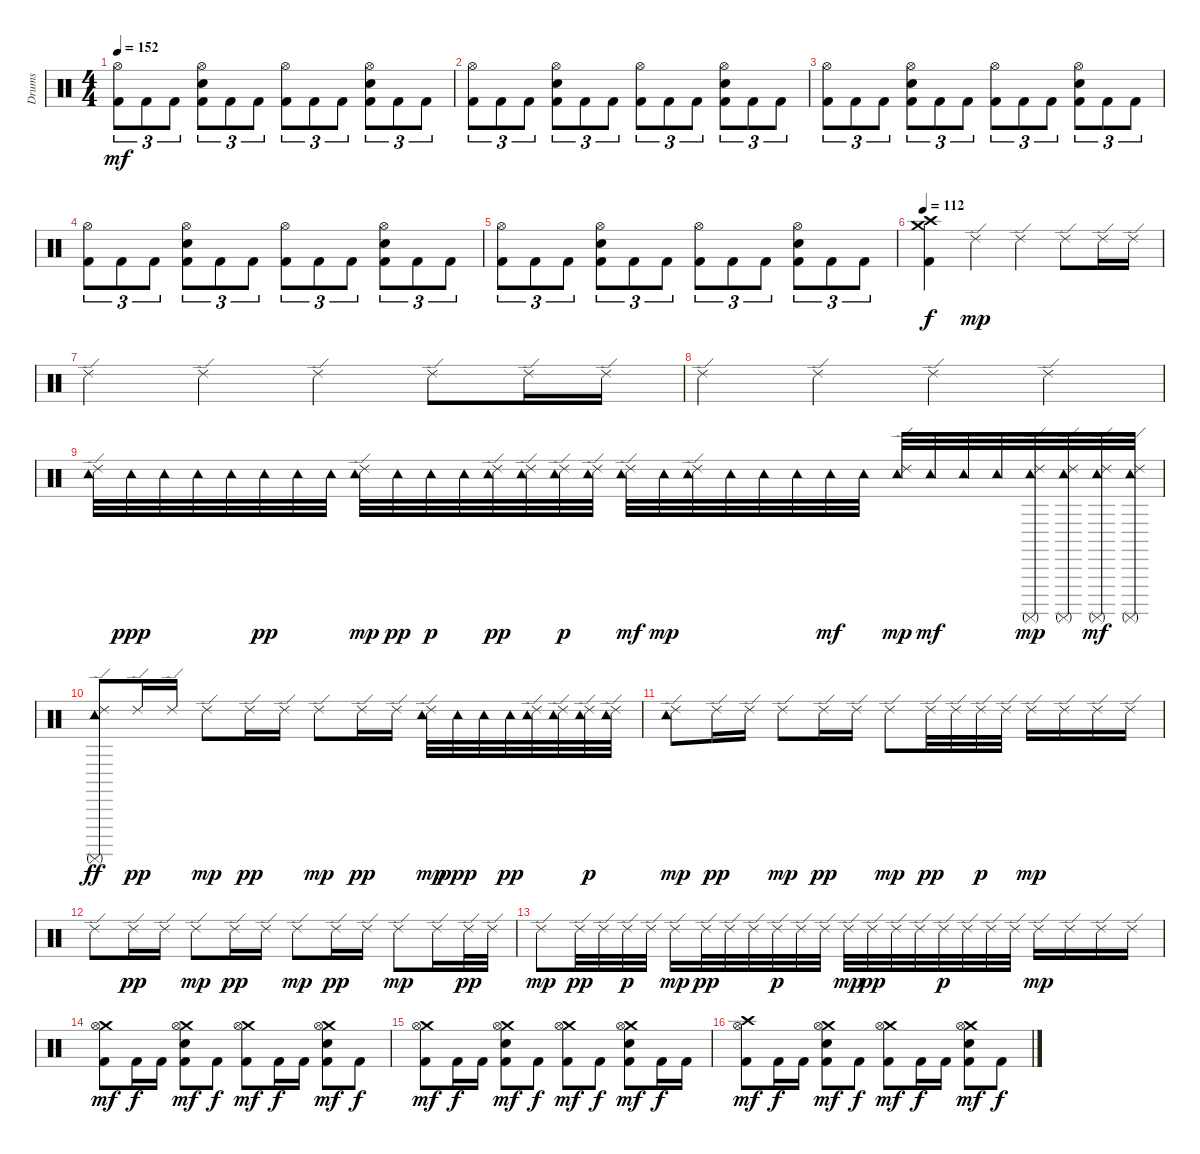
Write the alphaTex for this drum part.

\track ("Drums" "Drums") {instrument percussion}
\staff {score}
\articulation defaults
\ts (4 4)
\tempo 152
\clef neutral
\ks c
("Hi-Hat (open)" "Kick (hit) 2").8{tu (3 2) dy mf} "Kick (hit) 2".8{tu (3 2)} "Kick (hit) 2".8{tu (3 2)} ("Hi-Hat (open)" "Electric Snare (hit)" "Kick (hit) 2").8{tu (3 2)} "Kick (hit) 2".8{tu (3 2)} "Kick (hit) 2".8{tu (3 2)} ("Hi-Hat (open)" "Kick (hit) 2").8{tu (3 2)} "Kick (hit) 2".8{tu (3 2)} "Kick (hit) 2".8{tu (3 2)} ("Hi-Hat (open)" "Electric Snare (hit)" "Kick (hit) 2").8{tu (3 2)} "Kick (hit) 2".8{tu (3 2)} "Kick (hit) 2".8{tu (3 2)} |
("Hi-Hat (open)" "Kick (hit) 2").8{tu (3 2)} "Kick (hit) 2".8{tu (3 2)} "Kick (hit) 2".8{tu (3 2)} ("Hi-Hat (open)" "Electric Snare (hit)" "Kick (hit) 2").8{tu (3 2)} "Kick (hit) 2".8{tu (3 2)} "Kick (hit) 2".8{tu (3 2)} ("Hi-Hat (open)" "Kick (hit) 2").8{tu (3 2)} "Kick (hit) 2".8{tu (3 2)} "Kick (hit) 2".8{tu (3 2)} ("Hi-Hat (open)" "Electric Snare (hit)" "Kick (hit) 2").8{tu (3 2)} "Kick (hit) 2".8{tu (3 2)} "Kick (hit) 2".8{tu (3 2)} |
("Hi-Hat (open)" "Kick (hit) 2").8{tu (3 2)} "Kick (hit) 2".8{tu (3 2)} "Kick (hit) 2".8{tu (3 2)} ("Hi-Hat (open)" "Electric Snare (hit)" "Kick (hit) 2").8{tu (3 2)} "Kick (hit) 2".8{tu (3 2)} "Kick (hit) 2".8{tu (3 2)} ("Hi-Hat (open)" "Kick (hit) 2").8{tu (3 2)} "Kick (hit) 2".8{tu (3 2)} "Kick (hit) 2".8{tu (3 2)} ("Hi-Hat (open)" "Electric Snare (hit)" "Kick (hit) 2").8{tu (3 2)} "Kick (hit) 2".8{tu (3 2)} "Kick (hit) 2".8{tu (3 2)} |
("Hi-Hat (open)" "Kick (hit) 2").8{tu (3 2)} "Kick (hit) 2".8{tu (3 2)} "Kick (hit) 2".8{tu (3 2)} ("Hi-Hat (open)" "Electric Snare (hit)" "Kick (hit) 2").8{tu (3 2)} "Kick (hit) 2".8{tu (3 2)} "Kick (hit) 2".8{tu (3 2)} ("Hi-Hat (open)" "Kick (hit) 2").8{tu (3 2)} "Kick (hit) 2".8{tu (3 2)} "Kick (hit) 2".8{tu (3 2)} ("Hi-Hat (open)" "Electric Snare (hit)" "Kick (hit) 2").8{tu (3 2)} "Kick (hit) 2".8{tu (3 2)} "Kick (hit) 2".8{tu (3 2)} |
("Hi-Hat (open)" "Kick (hit) 2").8{tu (3 2)} "Kick (hit) 2".8{tu (3 2)} "Kick (hit) 2".8{tu (3 2)} ("Hi-Hat (open)" "Electric Snare (hit)" "Kick (hit) 2").8{tu (3 2)} "Kick (hit) 2".8{tu (3 2)} "Kick (hit) 2".8{tu (3 2)} ("Hi-Hat (open)" "Kick (hit) 2").8{tu (3 2)} "Kick (hit) 2".8{tu (3 2)} "Kick (hit) 2".8{tu (3 2)} ("Hi-Hat (open)" "Electric Snare (hit)" "Kick (hit) 2").8{tu (3 2)} "Kick (hit) 2".8{tu (3 2)} "Kick (hit) 2".8{tu (3 2)} |
\tempo 112
("Crash medium (hit)" "Crash high (hit)" "Kick (hit) 2").4{dy f} "Ride (edge) 2".4{dy mp} "Ride (edge) 2".4 "Ride (edge) 2".8 "Ride (edge) 2".16 "Ride (edge) 2".16 |
"Ride (edge) 2".4 "Ride (edge) 2".4 "Ride (edge) 2".4 "Ride (edge) 2".8 "Ride (edge) 2".16 "Ride (edge) 2".16 |
"Ride (edge) 2".4 "Ride (edge) 2".4 "Ride (edge) 2".4 "Ride (edge) 2".4 |
("Tambourine (hit)" "Ride (edge) 2").32 "Tambourine (hit)".32{dy ppp} "Tambourine (hit)".32 "Tambourine (hit)".32 "Tambourine (hit)".32 "Tambourine (hit)".32{dy pp} "Tambourine (hit)".32 "Tambourine (hit)".32 ("Tambourine (hit)" "Ride (edge) 2").32{dy mp} "Tambourine (hit)".32{dy pp} "Tambourine (hit)".32{dy p} "Tambourine (hit)".32 ("Tambourine (hit)" "Ride (edge) 2").32{dy pp} ("Tambourine (hit)" "Ride (edge) 2").32 ("Tambourine (hit)" "Ride (edge) 2").32{dy p} ("Tambourine (hit)" "Ride (edge) 2").32 ("Tambourine (hit)" "Ride (edge) 2").32{dy mf} "Tambourine (hit)".32{dy mp} ("Tambourine (hit)" "Ride (edge) 2").32 "Tambourine (hit)".32 "Tambourine (hit)".32 "Tambourine (hit)".32 "Tambourine (hit)".32{dy mf} "Tambourine (hit)".32 ("Tambourine (hit)" "Ride (edge) 2").32{dy mp} "Tambourine (hit)".32{dy mf} "Tambourine (hit)".32 "Tambourine (hit)".32 ("Tambourine (hit)" "Ride (edge) 2" "Surdo (mute)").32{dy mp} ("Tambourine (hit)" "Ride (edge) 2" "Surdo (mute)").32 ("Tambourine (hit)" "Ride (edge) 2" "Surdo (mute)").32{dy mf} ("Tambourine (hit)" "Ride (edge) 2" "Surdo (mute)").32 |
("Tambourine (hit)" "Ride (edge) 2" "Surdo (mute)").8{dy ff} "Ride (edge) 2".16{dy pp} "Ride (edge) 2".16 "Ride (edge) 2".8{dy mp} "Ride (edge) 2".16{dy pp} "Ride (edge) 2".16 "Ride (edge) 2".8{dy mp} "Ride (edge) 2".16{dy pp} "Ride (edge) 2".16 ("Tambourine (hit)" "Ride (edge) 2").32{dy mp} "Tambourine (hit)".32{dy ppp} "Tambourine (hit)".32 "Tambourine (hit)".32{dy pp} ("Tambourine (hit)" "Ride (edge) 2").32 ("Tambourine (hit)" "Ride (edge) 2").32 ("Tambourine (hit)" "Ride (edge) 2").32{dy p} ("Tambourine (hit)" "Ride (edge) 2").32 |
("Tambourine (hit)" "Ride (edge) 2").8{dy mp} "Ride (edge) 2".16{dy pp} "Ride (edge) 2".16 "Ride (edge) 2".8{dy mp} "Ride (edge) 2".16{dy pp} "Ride (edge) 2".16 "Ride (edge) 2".8{dy mp} "Ride (edge) 2".32{dy pp} "Ride (edge) 2".32 "Ride (edge) 2".32{dy p} "Ride (edge) 2".32 "Ride (edge) 2".16{dy mp} "Ride (edge) 2".16 "Ride (edge) 2".16 "Ride (edge) 2".16 |
"Ride (edge) 2".8 "Ride (edge) 2".16{dy pp} "Ride (edge) 2".16 "Ride (edge) 2".8{dy mp} "Ride (edge) 2".16{dy pp} "Ride (edge) 2".16 "Ride (edge) 2".8{dy mp} "Ride (edge) 2".16{dy pp} "Ride (edge) 2".16 "Ride (edge) 2".8{dy mp} "Ride (edge) 2".16 "Ride (edge) 2".32{dy pp} "Ride (edge) 2".32 |
"Ride (edge) 2".8{dy mp} "Ride (edge) 2".32{dy pp} "Ride (edge) 2".32 "Ride (edge) 2".32{dy p} "Ride (edge) 2".32 "Ride (edge) 2".16{dy mp} "Ride (edge) 2".32{dy pp} "Ride (edge) 2".32 "Ride (edge) 2".32 "Ride (edge) 2".32{dy p} "Ride (edge) 2".32 "Ride (edge) 2".32 "Ride (edge) 2".32{dy mp} "Ride (edge) 2".32{dy pp} "Ride (edge) 2".32 "Ride (edge) 2".32 "Ride (edge) 2".32{dy p} "Ride (edge) 2".32 "Ride (edge) 2".32 "Ride (edge) 2".32 "Ride (edge) 2".16{dy mp} "Ride (edge) 2".16 "Ride (edge) 2".16 "Ride (edge) 2".16 |
("Crash medium (hit)" "Hi-Hat (open)" "Kick (hit) 2").8{dy mf} "Kick (hit) 2".16{dy f} "Kick (hit) 2".16 ("Crash medium (hit)" "Hi-Hat (open)" "Electric Snare (hit)" "Kick (hit) 2").8{dy mf} "Kick (hit) 2".8{dy f} ("Crash medium (hit)" "Hi-Hat (open)" "Kick (hit) 2").8{dy mf} "Kick (hit) 2".16{dy f} "Kick (hit) 2".16 ("Crash medium (hit)" "Hi-Hat (open)" "Electric Snare (hit)" "Kick (hit) 2").8{dy mf} "Kick (hit) 2".8{dy f} |
("Crash medium (hit)" "Hi-Hat (open)" "Kick (hit) 2").8{dy mf} "Kick (hit) 2".16{dy f} "Kick (hit) 2".16 ("Crash medium (hit)" "Hi-Hat (open)" "Electric Snare (hit)" "Kick (hit) 2").8{dy mf} "Kick (hit) 2".8{dy f} ("Crash medium (hit)" "Hi-Hat (open)" "Kick (hit) 2").8{dy mf} "Kick (hit) 2".8{dy f} ("Crash medium (hit)" "Hi-Hat (open)" "Electric Snare (hit)" "Kick (hit) 2").8{dy mf} "Kick (hit) 2".16{dy f} "Kick (hit) 2".16 |
("Crash high (hit)" "Hi-Hat (open)" "Kick (hit) 2").8{dy mf} "Kick (hit) 2".16{dy f} "Kick (hit) 2".16 ("Crash medium (hit)" "Hi-Hat (open)" "Electric Snare (hit)" "Kick (hit) 2").8{dy mf} "Kick (hit) 2".8{dy f} ("Crash medium (hit)" "Hi-Hat (open)" "Kick (hit) 2").8{dy mf} "Kick (hit) 2".16{dy f} "Kick (hit) 2".16 ("Crash medium (hit)" "Hi-Hat (open)" "Electric Snare (hit)" "Kick (hit) 2").8{dy mf} "Kick (hit) 2".8{dy f}
